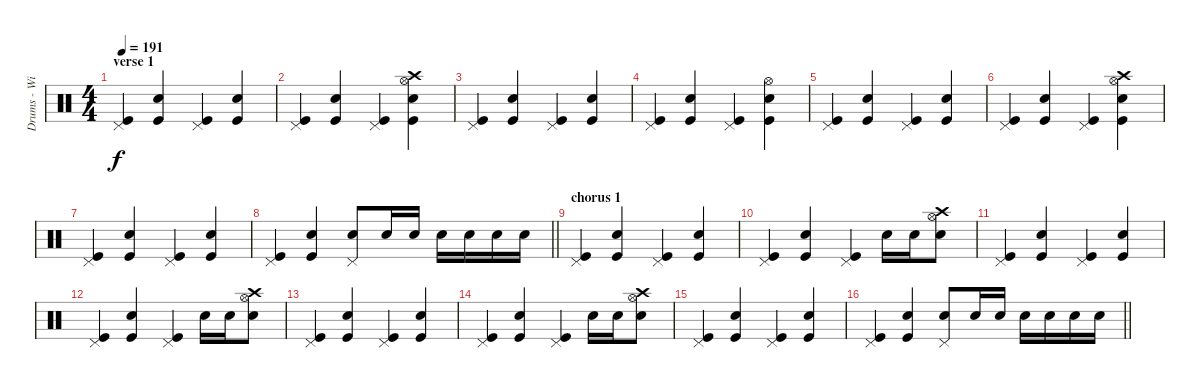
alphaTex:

\track ("Drums - Willie Buchan" "Drums - Wi") {instrument percussion}
\staff {score}
\articulation defaults
\ts (4 4)
\section ("" "verse 1")
\tempo 191
\clef neutral
\ks c
("Kick (hit)" "Pedal Hi-Hat (hit)").4{dy f} ("Kick (hit)" "Snare (hit) 2").4 ("Kick (hit)" "Pedal Hi-Hat (hit)").4 ("Kick (hit)" "Snare (hit) 2").4 |
("Kick (hit)" "Pedal Hi-Hat (hit)").4 ("Kick (hit)" "Snare (hit) 2").4 ("Kick (hit)" "Pedal Hi-Hat (hit)").4 ("Kick (hit)" "Snare (hit) 2" "Hi-Hat (open)" "Crash high (hit)").4 |
("Kick (hit)" "Pedal Hi-Hat (hit)").4 ("Kick (hit)" "Snare (hit) 2").4 ("Kick (hit)" "Pedal Hi-Hat (hit)").4 ("Kick (hit)" "Snare (hit) 2").4 |
("Kick (hit)" "Pedal Hi-Hat (hit)").4 ("Kick (hit)" "Snare (hit) 2").4 ("Kick (hit)" "Pedal Hi-Hat (hit)").4 ("Kick (hit)" "Snare (hit) 2" "Hi-Hat (open)").4 |
("Kick (hit)" "Pedal Hi-Hat (hit)").4 ("Kick (hit)" "Snare (hit) 2").4 ("Kick (hit)" "Pedal Hi-Hat (hit)").4 ("Kick (hit)" "Snare (hit) 2").4 |
("Kick (hit)" "Pedal Hi-Hat (hit)").4 ("Kick (hit)" "Snare (hit) 2").4 ("Kick (hit)" "Pedal Hi-Hat (hit)").4 ("Kick (hit)" "Snare (hit) 2" "Hi-Hat (open)" "Crash high (hit)").4 |
("Kick (hit)" "Pedal Hi-Hat (hit)").4 ("Kick (hit)" "Snare (hit) 2").4 ("Kick (hit)" "Pedal Hi-Hat (hit)").4 ("Kick (hit)" "Snare (hit) 2").4 |
\barLineRight lightlight
("Kick (hit)" "Pedal Hi-Hat (hit)").4 ("Kick (hit)" "Snare (hit) 2").4 ("Snare (hit) 2" "Pedal Hi-Hat (hit)").8 "Snare (hit) 2".16 "Snare (hit) 2".16 "Snare (hit) 2".16 "Snare (hit) 2".16 "Snare (hit) 2".16 "Snare (hit) 2".16 |
\section ("" "chorus 1")
("Kick (hit)" "Pedal Hi-Hat (hit)").4 ("Kick (hit)" "Snare (hit) 2").4 ("Kick (hit)" "Pedal Hi-Hat (hit)").4 ("Kick (hit)" "Snare (hit) 2").4 |
("Kick (hit)" "Pedal Hi-Hat (hit)").4 ("Kick (hit)" "Snare (hit) 2").4 ("Kick (hit)" "Pedal Hi-Hat (hit)").4 "Snare (hit) 2".16 "Snare (hit) 2".16 ("Snare (hit) 2" "Hi-Hat (open)" "Crash high (hit)").8 |
("Kick (hit)" "Pedal Hi-Hat (hit)").4 ("Kick (hit)" "Snare (hit) 2").4 ("Kick (hit)" "Pedal Hi-Hat (hit)").4 ("Kick (hit)" "Snare (hit) 2").4 |
("Kick (hit)" "Pedal Hi-Hat (hit)").4 ("Kick (hit)" "Snare (hit) 2").4 ("Kick (hit)" "Pedal Hi-Hat (hit)").4 "Snare (hit) 2".16 "Snare (hit) 2".16 ("Snare (hit) 2" "Hi-Hat (open)" "Crash high (hit)").8 |
("Kick (hit)" "Pedal Hi-Hat (hit)").4 ("Kick (hit)" "Snare (hit) 2").4 ("Kick (hit)" "Pedal Hi-Hat (hit)").4 ("Kick (hit)" "Snare (hit) 2").4 |
("Kick (hit)" "Pedal Hi-Hat (hit)").4 ("Kick (hit)" "Snare (hit) 2").4 ("Kick (hit)" "Pedal Hi-Hat (hit)").4 "Snare (hit) 2".16 "Snare (hit) 2".16 ("Snare (hit) 2" "Hi-Hat (open)" "Crash high (hit)").8 |
("Kick (hit)" "Pedal Hi-Hat (hit)").4 ("Kick (hit)" "Snare (hit) 2").4 ("Kick (hit)" "Pedal Hi-Hat (hit)").4 ("Kick (hit)" "Snare (hit) 2").4 |
\barLineRight lightlight
("Kick (hit)" "Pedal Hi-Hat (hit)").4 ("Kick (hit)" "Snare (hit) 2").4 ("Snare (hit) 2" "Pedal Hi-Hat (hit)").8 "Snare (hit) 2".16 "Snare (hit) 2".16 "Snare (hit) 2".16 "Snare (hit) 2".16 "Snare (hit) 2".16 "Snare (hit) 2".16
